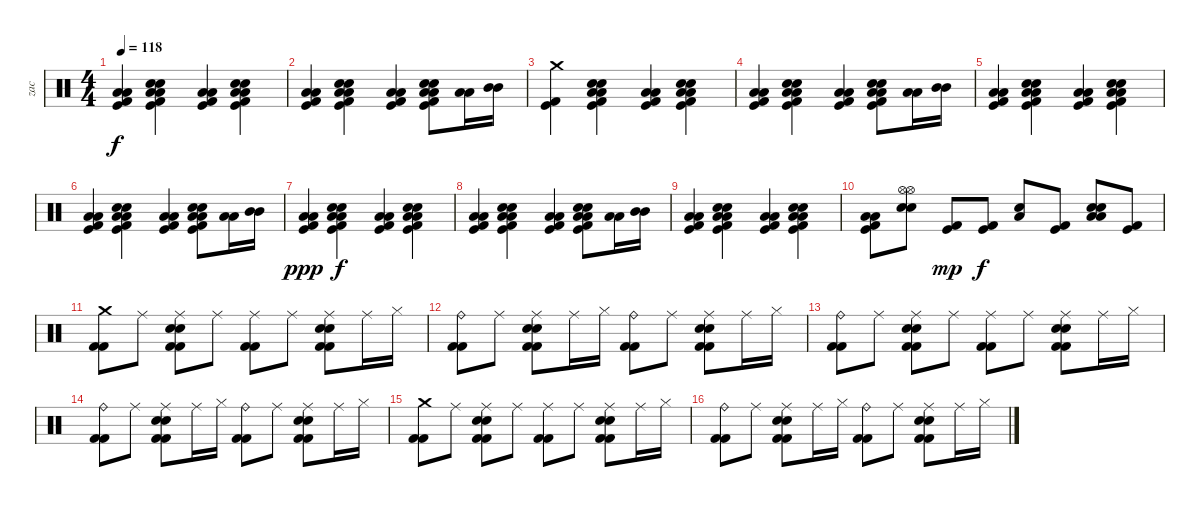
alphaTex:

\track ("zac" "zac") {instrument percussion}
\staff {score}
\articulation defaults
\ts (4 4)
\tempo 118
\clef neutral
\ks c
("Low Tom (hit)" "Low Tom (hit)" "Kick (hit)" "Kick (hit) 2").4{dy f} ("Low Tom (hit)" "Low Tom (hit)" "Electric Snare (hit)" "Electric Snare (hit)" "Kick (hit)" "Kick (hit) 2").4 ("Low Tom (hit)" "Low Tom (hit)" "Kick (hit)" "Kick (hit) 2").4 ("Low Tom (hit)" "Low Tom (hit)" "Electric Snare (hit)" "Electric Snare (hit)" "Kick (hit) 2" "Kick (hit)").4 |
("Low Tom (hit)" "Low Tom (hit)" "Kick (hit)" "Kick (hit) 2").4 ("Low Tom (hit)" "Low Tom (hit)" "Electric Snare (hit)" "Electric Snare (hit)" "Kick (hit)" "Kick (hit) 2").4 ("Low Tom (hit)" "Low Tom (hit)" "Kick (hit)" "Kick (hit) 2").4 ("Low Tom (hit)" "Low Tom (hit)" "Electric Snare (hit)" "Electric Snare (hit)" "Kick (hit) 2" "Kick (hit)").8 ("Low Tom (hit)" "Low Tom (hit)").16 ("Mid Tom (hit)" "Mid Tom (hit)").16 |
("Crash medium (hit)" "Kick (hit)" "Kick (hit) 2").4 ("Low Tom (hit)" "Low Tom (hit)" "Electric Snare (hit)" "Electric Snare (hit)" "Kick (hit)" "Kick (hit) 2").4 ("Low Tom (hit)" "Low Tom (hit)" "Kick (hit)" "Kick (hit) 2").4 ("Low Tom (hit)" "Low Tom (hit)" "Electric Snare (hit)" "Electric Snare (hit)" "Kick (hit) 2" "Kick (hit)").4 |
("Low Tom (hit)" "Low Tom (hit)" "Kick (hit)" "Kick (hit) 2").4 ("Low Tom (hit)" "Low Tom (hit)" "Electric Snare (hit)" "Electric Snare (hit)" "Kick (hit)" "Kick (hit) 2").4 ("Low Tom (hit)" "Low Tom (hit)" "Kick (hit)" "Kick (hit) 2").4 ("Low Tom (hit)" "Low Tom (hit)" "Electric Snare (hit)" "Electric Snare (hit)" "Kick (hit) 2" "Kick (hit)").8 ("Low Tom (hit)" "Low Tom (hit)").16 ("Mid Tom (hit)" "Mid Tom (hit)").16 |
("Low Tom (hit)" "Low Tom (hit)" "Kick (hit)" "Kick (hit) 2").4 ("Low Tom (hit)" "Low Tom (hit)" "Electric Snare (hit)" "Electric Snare (hit)" "Kick (hit)" "Kick (hit) 2").4 ("Low Tom (hit)" "Low Tom (hit)" "Kick (hit)" "Kick (hit) 2").4 ("Low Tom (hit)" "Low Tom (hit)" "Electric Snare (hit)" "Electric Snare (hit)" "Kick (hit) 2" "Kick (hit)").4 |
("Low Tom (hit)" "Low Tom (hit)" "Kick (hit)" "Kick (hit) 2").4 ("Low Tom (hit)" "Low Tom (hit)" "Electric Snare (hit)" "Electric Snare (hit)" "Kick (hit)" "Kick (hit) 2").4 ("Low Tom (hit)" "Low Tom (hit)" "Kick (hit)" "Kick (hit) 2").4 ("Low Tom (hit)" "Low Tom (hit)" "Electric Snare (hit)" "Electric Snare (hit)" "Kick (hit) 2" "Kick (hit)").8 ("Low Tom (hit)" "Low Tom (hit)").16 ("Mid Tom (hit)" "Mid Tom (hit)").16 |
("Low Tom (hit)" "Low Tom (hit)" "Kick (hit)" "Kick (hit) 2").4{dy ppp} ("Low Tom (hit)" "Low Tom (hit)" "Electric Snare (hit)" "Electric Snare (hit)" "Kick (hit)" "Kick (hit) 2").4{dy f} ("Low Tom (hit)" "Low Tom (hit)" "Kick (hit)" "Kick (hit) 2").4 ("Low Tom (hit)" "Low Tom (hit)" "Electric Snare (hit)" "Electric Snare (hit)" "Kick (hit) 2" "Kick (hit)").4 |
("Low Tom (hit)" "Low Tom (hit)" "Kick (hit)" "Kick (hit) 2").4 ("Low Tom (hit)" "Low Tom (hit)" "Electric Snare (hit)" "Electric Snare (hit)" "Kick (hit)" "Kick (hit) 2").4 ("Low Tom (hit)" "Low Tom (hit)" "Kick (hit)" "Kick (hit) 2").4 ("Low Tom (hit)" "Low Tom (hit)" "Electric Snare (hit)" "Electric Snare (hit)" "Kick (hit) 2" "Kick (hit)").8 ("Low Tom (hit)" "Low Tom (hit)").16 ("Mid Tom (hit)" "Mid Tom (hit)").16 |
("Low Tom (hit)" "Low Tom (hit)" "Kick (hit)" "Kick (hit) 2").4 ("Low Tom (hit)" "Low Tom (hit)" "Electric Snare (hit)" "Electric Snare (hit)" "Kick (hit)" "Kick (hit) 2").4 ("Low Tom (hit)" "Low Tom (hit)" "Kick (hit)" "Kick (hit) 2").4 ("Low Tom (hit)" "Low Tom (hit)" "Electric Snare (hit)" "Electric Snare (hit)" "Kick (hit) 2" "Kick (hit)").4 |
("Low Tom (hit)" "Low Tom (hit)" "Kick (hit)" "Kick (hit) 2").8 ("Hi-Hat (open)" "Hi-Hat (open)" "Electric Snare (hit)" "Electric Snare (hit)").8 ("Kick (hit)" "Kick (hit) 2").8{dy mp} ("Kick (hit)" "Kick (hit) 2").8{dy f} ("Low Tom (hit)" "Electric Snare (hit)").8 ("Kick (hit)" "Kick (hit) 2").8 ("Low Tom (hit)" "Low Tom (hit)" "Electric Snare (hit)" "Electric Snare (hit)").8 ("Kick (hit)" "Kick (hit) 2").8 |
("Crash medium (hit)" "Kick (hit) 2" "Kick (hit) 2").8 "Ride (middle)".8 ("Electric Snare (hit)" "Ride (middle)" "Electric Snare (hit)" "Kick (hit) 2" "Kick (hit) 2").8 "Ride (middle)".8 ("Ride (middle)" "Kick (hit) 2" "Kick (hit) 2").8 "Ride (middle)".8 ("Electric Snare (hit)" "Ride (middle)" "Electric Snare (hit)" "Kick (hit) 2" "Kick (hit) 2").8 "Ride (middle)".16 "Hi-Hat (closed)".16 |
("Ride (bell)" "Kick (hit) 2" "Kick (hit) 2").8 "Ride (middle)".8 ("Electric Snare (hit)" "Ride (middle)" "Electric Snare (hit)" "Kick (hit) 2" "Kick (hit) 2").8 "Ride (middle)".16 "Hi-Hat (closed)".16 ("Ride (bell)" "Kick (hit) 2" "Kick (hit) 2").8 "Ride (middle)".8 ("Electric Snare (hit)" "Ride (middle)" "Electric Snare (hit)" "Kick (hit) 2" "Kick (hit) 2").8 "Ride (middle)".16 "Hi-Hat (closed)".16 |
("Ride (bell)" "Kick (hit) 2" "Kick (hit) 2").8 "Ride (middle)".8 ("Electric Snare (hit)" "Ride (middle)" "Electric Snare (hit)" "Kick (hit) 2" "Kick (hit) 2").8 "Ride (middle)".8 ("Ride (middle)" "Kick (hit) 2" "Kick (hit) 2").8 "Ride (middle)".8 ("Electric Snare (hit)" "Ride (middle)" "Electric Snare (hit)" "Kick (hit) 2" "Kick (hit) 2").8 "Ride (middle)".16 "Hi-Hat (closed)".16 |
("Ride (bell)" "Kick (hit) 2" "Kick (hit) 2").8 "Ride (middle)".8 ("Electric Snare (hit)" "Ride (middle)" "Electric Snare (hit)" "Kick (hit) 2" "Kick (hit) 2").8 "Ride (middle)".16 "Hi-Hat (closed)".16 ("Ride (bell)" "Kick (hit) 2" "Kick (hit) 2").8 "Ride (middle)".8 ("Electric Snare (hit)" "Ride (middle)" "Electric Snare (hit)" "Kick (hit) 2" "Kick (hit) 2").8 "Ride (middle)".16 "Hi-Hat (closed)".16 |
("Crash medium (hit)" "Kick (hit) 2" "Kick (hit) 2").8 "Ride (middle)".8 ("Electric Snare (hit)" "Ride (middle)" "Electric Snare (hit)" "Kick (hit) 2" "Kick (hit) 2").8 "Ride (middle)".8 ("Ride (middle)" "Kick (hit) 2" "Kick (hit) 2").8 "Ride (middle)".8 ("Electric Snare (hit)" "Ride (middle)" "Electric Snare (hit)" "Kick (hit) 2" "Kick (hit) 2").8 "Ride (middle)".16 "Hi-Hat (closed)".16 |
("Ride (bell)" "Kick (hit) 2" "Kick (hit) 2").8 "Ride (middle)".8 ("Electric Snare (hit)" "Ride (middle)" "Electric Snare (hit)" "Kick (hit) 2" "Kick (hit) 2").8 "Ride (middle)".16 "Hi-Hat (closed)".16 ("Ride (bell)" "Kick (hit) 2" "Kick (hit) 2").8 "Ride (middle)".8 ("Electric Snare (hit)" "Ride (middle)" "Electric Snare (hit)" "Kick (hit) 2" "Kick (hit) 2").8 "Ride (middle)".16 "Hi-Hat (closed)".16
